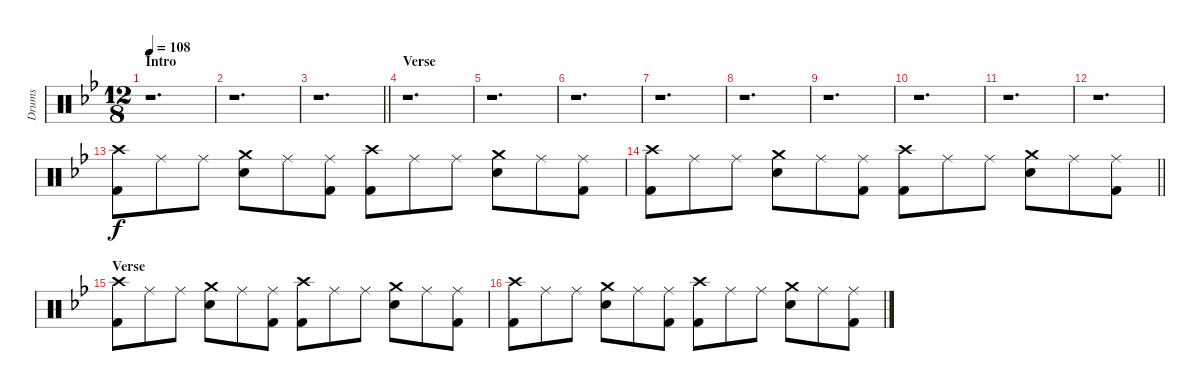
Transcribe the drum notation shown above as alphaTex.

\track ("Drums" "Drums") {instrument percussion}
\staff {score}
\articulation defaults
\ts (12 8)
\section ("" "Intro")
\tempo 108
\clef neutral
\ks gminor
r.1{d dy f} |
r.1{d} |
\barLineRight lightlight
r.1{d} |
\section ("" "Verse")
r.1{d} |
r.1{d} |
r.1{d} |
r.1{d} |
r.1{d} |
r.1{d} |
r.1{d} |
r.1{d} |
r.1{d} |
("Crash high (hit)" "Kick (hit) 2").8 "Ride (middle)".8 "Ride (middle)".8 ("Crash medium (hit)" "Electric Snare (hit)").8 "Ride (middle)".8 ("Ride (middle)" "Kick (hit) 2").8 ("Crash high (hit)" "Kick (hit) 2").8 "Ride (middle)".8 "Ride (middle)".8 ("Crash medium (hit)" "Electric Snare (hit)").8 "Ride (middle)".8 ("Ride (middle)" "Kick (hit) 2").8 |
\barLineRight lightlight
("Crash high (hit)" "Kick (hit) 2").8 "Ride (middle)".8 "Ride (middle)".8 ("Crash medium (hit)" "Electric Snare (hit)").8 "Ride (middle)".8 ("Ride (middle)" "Kick (hit) 2").8 ("Crash high (hit)" "Kick (hit) 2").8 "Ride (middle)".8 "Ride (middle)".8 ("Crash medium (hit)" "Electric Snare (hit)").8 "Ride (middle)".8 ("Ride (middle)" "Kick (hit) 2").8 |
\section ("" "Verse")
("Crash high (hit)" "Kick (hit) 2").8 "Ride (middle)".8 "Ride (middle)".8 ("Crash medium (hit)" "Electric Snare (hit)").8 "Ride (middle)".8 ("Ride (middle)" "Kick (hit) 2").8 ("Crash high (hit)" "Kick (hit) 2").8 "Ride (middle)".8 "Ride (middle)".8 ("Crash medium (hit)" "Electric Snare (hit)").8 "Ride (middle)".8 ("Ride (middle)" "Kick (hit) 2").8 |
("Crash high (hit)" "Kick (hit) 2").8 "Ride (middle)".8 "Ride (middle)".8 ("Crash medium (hit)" "Electric Snare (hit)").8 "Ride (middle)".8 ("Ride (middle)" "Kick (hit) 2").8 ("Crash high (hit)" "Kick (hit) 2").8 "Ride (middle)".8 "Ride (middle)".8 ("Crash medium (hit)" "Electric Snare (hit)").8 "Ride (middle)".8 ("Ride (middle)" "Kick (hit) 2").8
